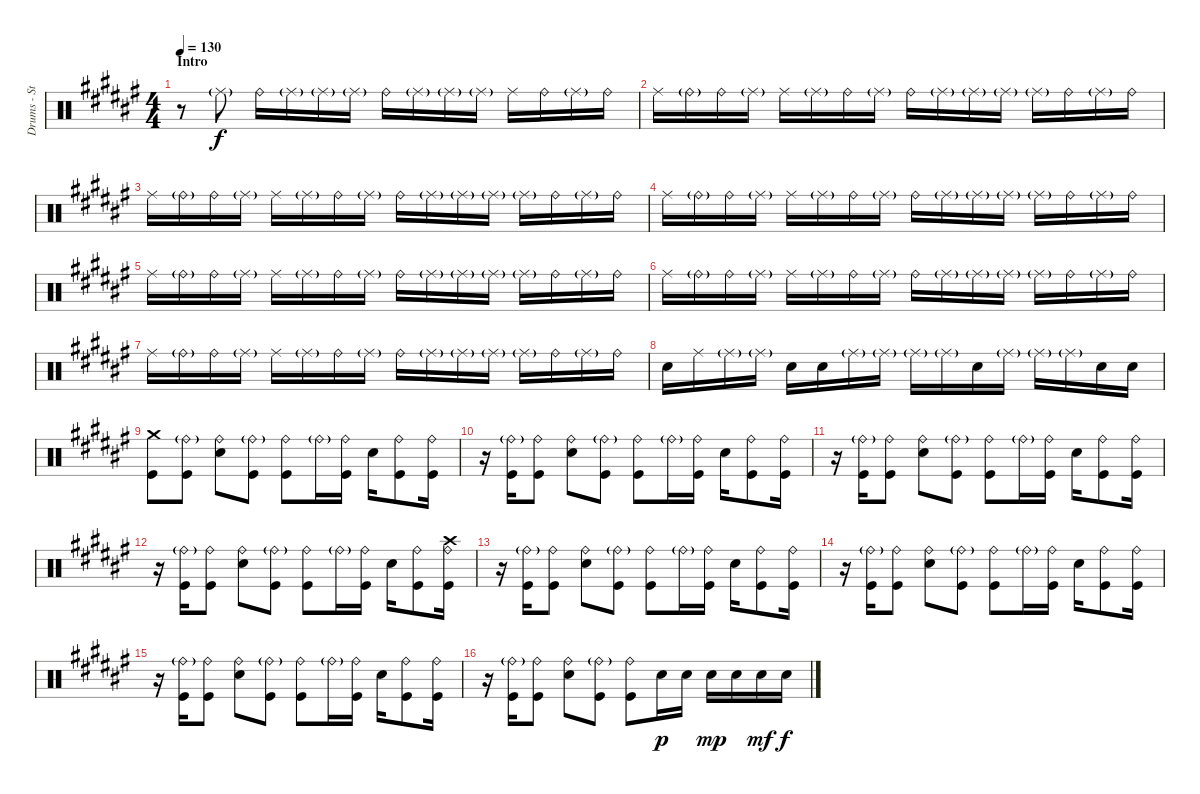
\track ("Drums - Stef Broks" "Drums - St") {instrument percussion}
\staff {score}
\articulation defaults
\ts (4 4)
\section ("" "Intro")
\tempo 130
\clef neutral
\ks d#minor
r.8{dy f} "Ride (middle)"{g}.8 "Ride (bell)".16 "Ride (middle)"{g}.16 "Ride (middle)"{g}.16 "Ride (middle)"{g}.16 "Ride (bell)".16 "Ride (middle)"{g}.16 "Ride (middle)"{g}.16 "Ride (middle)"{g}.16 "Ride (middle)".16 "Ride (bell)".16 "Ride (middle)"{g}.16 "Ride (bell)".16 |
"Ride (middle)".16 "Ride (bell)"{g}.16 "Ride (bell)".16 "Ride (middle)"{g}.16 "Ride (middle)".16 "Ride (middle)"{g}.16 "Ride (bell)".16 "Ride (middle)"{g}.16 "Ride (bell)".16 "Ride (middle)"{g}.16 "Ride (middle)"{g}.16 "Ride (middle)"{g}.16 "Ride (middle)"{g}.16 "Ride (bell)".16 "Ride (middle)"{g}.16 "Ride (bell)".16 |
"Ride (middle)".16 "Ride (bell)"{g}.16 "Ride (bell)".16 "Ride (middle)"{g}.16 "Ride (middle)".16 "Ride (middle)"{g}.16 "Ride (bell)".16 "Ride (middle)"{g}.16 "Ride (bell)".16 "Ride (middle)"{g}.16 "Ride (middle)"{g}.16 "Ride (middle)"{g}.16 "Ride (middle)"{g}.16 "Ride (bell)".16 "Ride (middle)"{g}.16 "Ride (bell)".16 |
"Ride (middle)".16 "Ride (bell)"{g}.16 "Ride (bell)".16 "Ride (middle)"{g}.16 "Ride (middle)".16 "Ride (middle)"{g}.16 "Ride (bell)".16 "Ride (middle)"{g}.16 "Ride (bell)".16 "Ride (middle)"{g}.16 "Ride (middle)"{g}.16 "Ride (middle)"{g}.16 "Ride (middle)"{g}.16 "Ride (bell)".16 "Ride (middle)"{g}.16 "Ride (bell)".16 |
"Ride (middle)".16 "Ride (bell)"{g}.16 "Ride (bell)".16 "Ride (middle)"{g}.16 "Ride (middle)".16 "Ride (middle)"{g}.16 "Ride (bell)".16 "Ride (middle)"{g}.16 "Ride (bell)".16 "Ride (middle)"{g}.16 "Ride (middle)"{g}.16 "Ride (middle)"{g}.16 "Ride (middle)"{g}.16 "Ride (bell)".16 "Ride (middle)"{g}.16 "Ride (bell)".16 |
"Ride (middle)".16 "Ride (bell)"{g}.16 "Ride (bell)".16 "Ride (middle)"{g}.16 "Ride (middle)".16 "Ride (middle)"{g}.16 "Ride (bell)".16 "Ride (middle)"{g}.16 "Ride (bell)".16 "Ride (middle)"{g}.16 "Ride (middle)"{g}.16 "Ride (middle)"{g}.16 "Ride (middle)"{g}.16 "Ride (bell)".16 "Ride (middle)"{g}.16 "Ride (bell)".16 |
"Ride (middle)".16 "Ride (bell)"{g}.16 "Ride (bell)".16 "Ride (middle)"{g}.16 "Ride (middle)".16 "Ride (middle)"{g}.16 "Ride (bell)".16 "Ride (middle)"{g}.16 "Ride (bell)".16 "Ride (middle)"{g}.16 "Ride (middle)"{g}.16 "Ride (middle)"{g}.16 "Ride (middle)"{g}.16 "Ride (bell)".16 "Ride (middle)"{g}.16 "Ride (bell)".16 |
"Snare (hit) 2".16 "Ride (middle)".16 "Ride (middle)"{g}.16 "Ride (middle)"{g}.16 "Snare (hit) 2".16 "Snare (hit) 2".16 "Ride (middle)"{g}.16 "Ride (middle)"{g}.16 "Ride (middle)"{g}.16 "Ride (middle)"{g}.16 "Snare (hit) 2".16 "Ride (middle)"{g}.16 "Ride (middle)"{g}.16 "Ride (middle)"{g}.16 "Snare (hit) 2".16 "Snare (hit) 2".16 |
("Kick (hit)" "Crash medium (hit)").8 ("Kick (hit)" "Ride (bell)"{g}).8 ("Snare (hit) 2" "Ride (bell)").8 ("Kick (hit)" "Ride (bell)"{g}).8 ("Kick (hit)" "Ride (bell)").8 "Ride (bell)"{g}.16 ("Kick (hit)" "Ride (bell)").16 "Snare (hit) 2".16 ("Kick (hit)" "Ride (bell)").8 ("Ride (bell)" "Kick (hit)").16 |
r.16 ("Kick (hit)" "Ride (bell)"{g}).16 ("Kick (hit)" "Ride (bell)").8 ("Ride (bell)" "Snare (hit) 2").8 ("Ride (bell)"{g} "Kick (hit)").8 ("Ride (bell)" "Kick (hit)").8 "Ride (bell)"{g}.16 ("Ride (bell)" "Kick (hit)").16 "Snare (hit) 2".16 ("Kick (hit)" "Ride (bell)").8 ("Kick (hit)" "Ride (bell)").16 |
r.16 ("Kick (hit)" "Ride (bell)"{g}).16 ("Kick (hit)" "Ride (bell)").8 ("Ride (bell)" "Snare (hit) 2").8 ("Ride (bell)"{g} "Kick (hit)").8 ("Ride (bell)" "Kick (hit)").8 "Ride (bell)"{g}.16 ("Ride (bell)" "Kick (hit)").16 "Snare (hit) 2".16 ("Kick (hit)" "Ride (bell)").8 ("Kick (hit)" "Ride (bell)").16 |
r.16 ("Kick (hit)" "Ride (bell)"{g}).16 ("Kick (hit)" "Ride (bell)").8 ("Ride (bell)" "Snare (hit) 2").8 ("Ride (bell)"{g} "Kick (hit)").8 ("Ride (bell)" "Kick (hit)").8 "Ride (bell)"{g}.16 ("Ride (bell)" "Kick (hit)").16 "Snare (hit) 2".16 ("Kick (hit)" "Ride (bell)").8 ("Kick (hit)" "Ride (bell)" "Crash high (hit)").16 |
r.16 ("Kick (hit)" "Ride (bell)"{g}).16 ("Kick (hit)" "Ride (bell)").8 ("Ride (bell)" "Snare (hit) 2").8 ("Ride (bell)"{g} "Kick (hit)").8 ("Ride (bell)" "Kick (hit)").8 "Ride (bell)"{g}.16 ("Ride (bell)" "Kick (hit)").16 "Snare (hit) 2".16 ("Kick (hit)" "Ride (bell)").8 ("Kick (hit)" "Ride (bell)").16 |
r.16 ("Kick (hit)" "Ride (bell)"{g}).16 ("Kick (hit)" "Ride (bell)").8 ("Ride (bell)" "Snare (hit) 2").8 ("Ride (bell)"{g} "Kick (hit)").8 ("Ride (bell)" "Kick (hit)").8 "Ride (bell)"{g}.16 ("Ride (bell)" "Kick (hit)").16 "Snare (hit) 2".16 ("Kick (hit)" "Ride (bell)").8 ("Kick (hit)" "Ride (bell)").16 |
r.16 ("Kick (hit)" "Ride (bell)"{g}).16 ("Kick (hit)" "Ride (bell)").8 ("Ride (bell)" "Snare (hit) 2").8 ("Ride (bell)"{g} "Kick (hit)").8 ("Ride (bell)" "Kick (hit)").8 "Ride (bell)"{g}.16 ("Ride (bell)" "Kick (hit)").16 "Snare (hit) 2".16 ("Kick (hit)" "Ride (bell)").8 ("Kick (hit)" "Ride (bell)").16 |
r.16 ("Kick (hit)" "Ride (bell)"{g}).16 ("Kick (hit)" "Ride (bell)").8 ("Ride (bell)" "Snare (hit) 2").8 ("Ride (bell)"{g} "Kick (hit)").8 ("Ride (bell)" "Kick (hit)").8 "Snare (hit) 2".16{dy p} "Snare (hit) 2".16 "Snare (hit) 2".16{dy mp} "Snare (hit) 2".16 "Snare (hit) 2".16{dy mf} "Snare (hit) 2".16{dy f}
